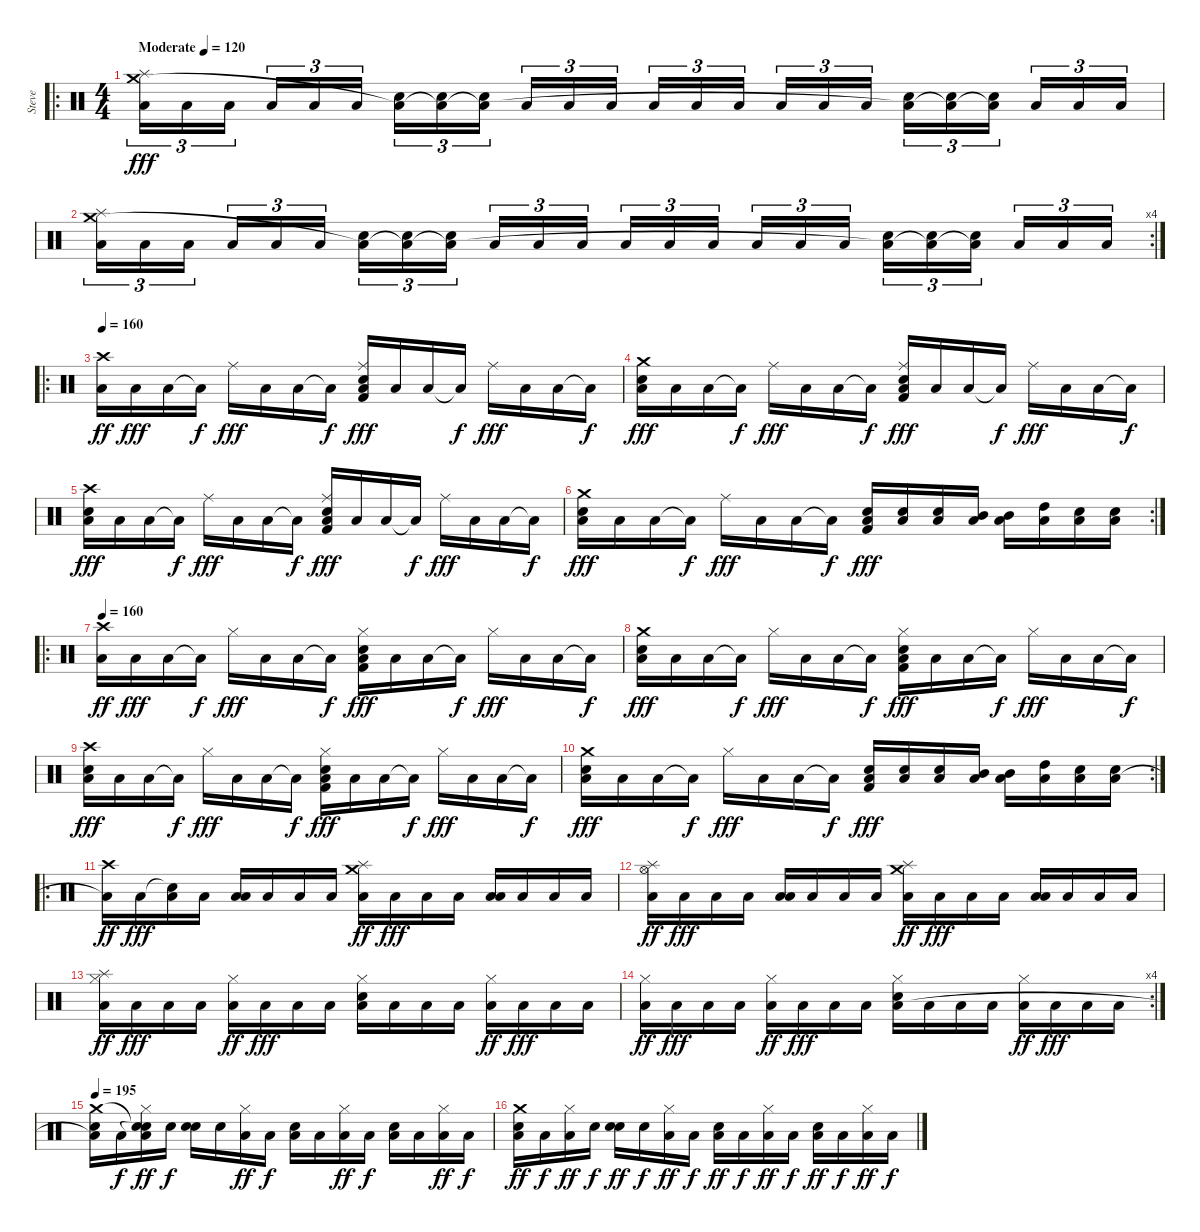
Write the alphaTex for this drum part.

\track ("Steve" "Steve") {instrument percussion}
\staff {score}
\articulation defaults
\ro
\ts (4 4)
\tempo (120 "Moderate")
\clef neutral
\ks c
("Splash (hit)" "Crash medium (hit)" "Low Floor Tom (hit)").16{tu (3 2) dy fff} "Low Floor Tom (hit)".16{tu (3 2)} "Low Floor Tom (hit)".16{tu (3 2) beam splitsecondary} "Low Floor Tom (hit)".16{tu (3 2)} "Low Floor Tom (hit)".16{tu (3 2)} "Low Floor Tom (hit)".16{tu (3 2)} ("Electric Snare (hit)" "Low Floor Tom (hit)"{t}).16{tu (3 2)} ("Electric Snare (hit)" "Low Floor Tom (hit)"{t}).16{tu (3 2)} ("Electric Snare (hit)" "Low Floor Tom (hit)"{t}).16{tu (3 2) beam splitsecondary} "Low Floor Tom (hit)".16{tu (3 2)} "Low Floor Tom (hit)".16{tu (3 2)} "Low Floor Tom (hit)".16{tu (3 2)} "Low Floor Tom (hit)".16{tu (3 2)} "Low Floor Tom (hit)".16{tu (3 2)} "Low Floor Tom (hit)".16{tu (3 2) beam splitsecondary} "Low Floor Tom (hit)".16{tu (3 2)} "Low Floor Tom (hit)".16{tu (3 2)} "Low Floor Tom (hit)".16{tu (3 2)} ("Electric Snare (hit)" "Low Floor Tom (hit)"{t}).16{tu (3 2)} ("Electric Snare (hit)" "Low Floor Tom (hit)"{t}).16{tu (3 2)} ("Electric Snare (hit)" "Low Floor Tom (hit)"{t}).16{tu (3 2) beam splitsecondary} "Low Floor Tom (hit)".16{tu (3 2)} "Low Floor Tom (hit)".16{tu (3 2)} "Low Floor Tom (hit)".16{tu (3 2)} |
\rc 4
("Splash (hit)" "Crash medium (hit)" "Low Floor Tom (hit)").16{tu (3 2)} "Low Floor Tom (hit)".16{tu (3 2)} "Low Floor Tom (hit)".16{tu (3 2) beam splitsecondary} "Low Floor Tom (hit)".16{tu (3 2)} "Low Floor Tom (hit)".16{tu (3 2)} "Low Floor Tom (hit)".16{tu (3 2)} ("Electric Snare (hit)" "Low Floor Tom (hit)"{t}).16{tu (3 2)} ("Electric Snare (hit)" "Low Floor Tom (hit)"{t}).16{tu (3 2)} ("Electric Snare (hit)" "Low Floor Tom (hit)"{t}).16{tu (3 2) beam splitsecondary} "Low Floor Tom (hit)".16{tu (3 2)} "Low Floor Tom (hit)".16{tu (3 2)} "Low Floor Tom (hit)".16{tu (3 2)} "Low Floor Tom (hit)".16{tu (3 2)} "Low Floor Tom (hit)".16{tu (3 2)} "Low Floor Tom (hit)".16{tu (3 2) beam splitsecondary} "Low Floor Tom (hit)".16{tu (3 2)} "Low Floor Tom (hit)".16{tu (3 2)} "Low Floor Tom (hit)".16{tu (3 2)} ("Electric Snare (hit)" "Low Floor Tom (hit)"{t}).16{tu (3 2)} ("Electric Snare (hit)" "Low Floor Tom (hit)"{t}).16{tu (3 2)} ("Electric Snare (hit)" "Low Floor Tom (hit)"{t}).16{tu (3 2) beam splitsecondary} "Low Floor Tom (hit)".16{tu (3 2)} "Low Floor Tom (hit)".16{tu (3 2)} "Low Floor Tom (hit)".16{tu (3 2)} |
\ro
\tempo 160
("Crash high (hit)" "Low Floor Tom (hit)").16{dy ff} "Low Floor Tom (hit)".16{dy fff} "Low Floor Tom (hit)".16 "Low Floor Tom (hit)"{t}.16{dy f} "Ride (middle)".16{dy fff} "Low Floor Tom (hit)".16 "Low Floor Tom (hit)".16 "Low Floor Tom (hit)"{t}.16{dy f} ("Electric Snare (hit)" "Kick (hit) 2" "Ride (middle)" "Low Floor Tom (hit)").16{dy fff} "Low Floor Tom (hit)".16 "Low Floor Tom (hit)".16 "Low Floor Tom (hit)"{t}.16{dy f} "Ride (middle)".16{dy fff} "Low Floor Tom (hit)".16 "Low Floor Tom (hit)".16 "Low Floor Tom (hit)"{t}.16{dy f} |
("Crash medium (hit)" "Electric Snare (hit)" "Low Floor Tom (hit)").16{dy fff} "Low Floor Tom (hit)".16 "Low Floor Tom (hit)".16 "Low Floor Tom (hit)"{t}.16{dy f} "Ride (middle)".16{dy fff} "Low Floor Tom (hit)".16 "Low Floor Tom (hit)".16 "Low Floor Tom (hit)"{t}.16{dy f} ("Electric Snare (hit)" "Kick (hit) 2" "Ride (middle)" "Low Floor Tom (hit)").16{dy fff} "Low Floor Tom (hit)".16 "Low Floor Tom (hit)".16 "Low Floor Tom (hit)"{t}.16{dy f} "Ride (middle)".16{dy fff} "Low Floor Tom (hit)".16 "Low Floor Tom (hit)".16 "Low Floor Tom (hit)"{t}.16{dy f} |
("Crash high (hit)" "Electric Snare (hit)" "Low Floor Tom (hit)").16{dy fff} "Low Floor Tom (hit)".16 "Low Floor Tom (hit)".16 "Low Floor Tom (hit)"{t}.16{dy f} "Ride (middle)".16{dy fff} "Low Floor Tom (hit)".16 "Low Floor Tom (hit)".16 "Low Floor Tom (hit)"{t}.16{dy f} ("Electric Snare (hit)" "Kick (hit) 2" "Ride (middle)" "Low Floor Tom (hit)").16{dy fff} "Low Floor Tom (hit)".16 "Low Floor Tom (hit)".16 "Low Floor Tom (hit)"{t}.16{dy f} "Ride (middle)".16{dy fff} "Low Floor Tom (hit)".16 "Low Floor Tom (hit)".16 "Low Floor Tom (hit)"{t}.16{dy f} |
\rc 2
("Crash medium (hit)" "Electric Snare (hit)" "Low Floor Tom (hit)").16{dy fff} "Low Floor Tom (hit)".16 "Low Floor Tom (hit)".16 "Low Floor Tom (hit)"{t}.16{dy f} "Ride (middle)".16{dy fff} "Low Floor Tom (hit)".16 "Low Floor Tom (hit)".16 "Low Floor Tom (hit)"{t}.16{dy f} ("Electric Snare (hit)" "Kick (hit) 2" "Low Floor Tom (hit)").16{dy fff} ("Electric Snare (hit)" "Low Floor Tom (hit)").16 ("Electric Snare (hit)" "Low Floor Tom (hit)").16 ("Mid Tom (hit)" "Low Floor Tom (hit)").16 ("Mid Tom (hit)" "Low Floor Tom (hit)").16 ("High Tom (hit)" "Low Floor Tom (hit)").16 ("Electric Snare (hit)" "Low Floor Tom (hit)").16 ("Electric Snare (hit)" "Low Floor Tom (hit)").16 |
\ro
\tempo 160
("Crash high (hit)" "Low Floor Tom (hit)").16{dy ff} "Low Floor Tom (hit)".16{dy fff} "Low Floor Tom (hit)".16 "Low Floor Tom (hit)"{t}.16{dy f} "Hi-Hat (closed)".16{dy fff} "Low Floor Tom (hit)".16 "Low Floor Tom (hit)".16 "Low Floor Tom (hit)"{t}.16{dy f} ("Electric Snare (hit)" "Kick (hit) 2" "Hi-Hat (closed)" "Low Floor Tom (hit)").16{dy fff} "Low Floor Tom (hit)".16 "Low Floor Tom (hit)".16 "Low Floor Tom (hit)"{t}.16{dy f} "Hi-Hat (closed)".16{dy fff} "Low Floor Tom (hit)".16 "Low Floor Tom (hit)".16 "Low Floor Tom (hit)"{t}.16{dy f} |
("Crash medium (hit)" "Electric Snare (hit)" "Low Floor Tom (hit)").16{dy fff} "Low Floor Tom (hit)".16 "Low Floor Tom (hit)".16 "Low Floor Tom (hit)"{t}.16{dy f} "Hi-Hat (closed)".16{dy fff} "Low Floor Tom (hit)".16 "Low Floor Tom (hit)".16 "Low Floor Tom (hit)"{t}.16{dy f} ("Electric Snare (hit)" "Kick (hit) 2" "Hi-Hat (closed)" "Low Floor Tom (hit)").16{dy fff} "Low Floor Tom (hit)".16 "Low Floor Tom (hit)".16 "Low Floor Tom (hit)"{t}.16{dy f} "Hi-Hat (closed)".16{dy fff} "Low Floor Tom (hit)".16 "Low Floor Tom (hit)".16 "Low Floor Tom (hit)"{t}.16{dy f} |
("Crash high (hit)" "Electric Snare (hit)" "Low Floor Tom (hit)").16{dy fff} "Low Floor Tom (hit)".16 "Low Floor Tom (hit)".16 "Low Floor Tom (hit)"{t}.16{dy f} "Hi-Hat (closed)".16{dy fff} "Low Floor Tom (hit)".16 "Low Floor Tom (hit)".16 "Low Floor Tom (hit)"{t}.16{dy f} ("Electric Snare (hit)" "Kick (hit) 2" "Hi-Hat (closed)" "Low Floor Tom (hit)").16{dy fff} "Low Floor Tom (hit)".16 "Low Floor Tom (hit)".16 "Low Floor Tom (hit)"{t}.16{dy f} "Hi-Hat (closed)".16{dy fff} "Low Floor Tom (hit)".16 "Low Floor Tom (hit)".16 "Low Floor Tom (hit)"{t}.16{dy f} |
\rc 2
("Crash medium (hit)" "Electric Snare (hit)" "Low Floor Tom (hit)").16{dy fff} "Low Floor Tom (hit)".16 "Low Floor Tom (hit)".16 "Low Floor Tom (hit)"{t}.16{dy f} "Hi-Hat (closed)".16{dy fff} "Low Floor Tom (hit)".16 "Low Floor Tom (hit)".16 "Low Floor Tom (hit)"{t}.16{dy f} ("Electric Snare (hit)" "Kick (hit) 2" "Low Floor Tom (hit)").16{dy fff} ("Electric Snare (hit)" "Low Floor Tom (hit)").16 ("Electric Snare (hit)" "Low Floor Tom (hit)").16 ("Mid Tom (hit)" "Low Floor Tom (hit)").16 ("Mid Tom (hit)" "Low Floor Tom (hit)").16 ("High Tom (hit)" "Low Floor Tom (hit)").16 ("Electric Snare (hit)" "Low Floor Tom (hit)").16 ("Electric Snare (hit)" "Low Floor Tom (hit)").16 |
\ro
("Crash high (hit)" "Low Floor Tom (hit)"{t}).16{dy ff} "Low Floor Tom (hit)".16{dy fff} ("Snare (hit)"{t} "Low Floor Tom (hit)").16 "Low Floor Tom (hit)".16 ("Low Tom (hit)" "Low Floor Tom (hit)").16 "Low Floor Tom (hit)".16 "Low Floor Tom (hit)".16 "Low Floor Tom (hit)".16 ("Crash medium (hit)" "Splash (hit)" "Low Floor Tom (hit)").16{dy ff} "Low Floor Tom (hit)".16{dy fff} "Low Floor Tom (hit)".16 "Low Floor Tom (hit)".16 ("Low Tom (hit)" "Low Floor Tom (hit)").16 "Low Floor Tom (hit)".16 "Low Floor Tom (hit)".16 "Low Floor Tom (hit)".16 |
("Splash (hit)" "Hi-Hat (open)" "Low Floor Tom (hit)").16{dy ff} "Low Floor Tom (hit)".16{dy fff} "Low Floor Tom (hit)".16 "Low Floor Tom (hit)".16 ("Low Tom (hit)" "Low Floor Tom (hit)").16 "Low Floor Tom (hit)".16 "Low Floor Tom (hit)".16 "Low Floor Tom (hit)".16 ("Crash medium (hit)" "Splash (hit)" "Low Floor Tom (hit)").16{dy ff} "Low Floor Tom (hit)".16{dy fff} "Low Floor Tom (hit)".16 "Low Floor Tom (hit)".16 ("Low Tom (hit)" "Low Floor Tom (hit)").16 "Low Floor Tom (hit)".16 "Low Floor Tom (hit)".16 "Low Floor Tom (hit)".16 |
("Splash (hit)" "Hi-Hat (closed)" "Low Floor Tom (hit)").16{dy ff} "Low Floor Tom (hit)".16{dy fff} "Low Floor Tom (hit)".16 "Low Floor Tom (hit)".16 ("Hi-Hat (closed)" "Low Floor Tom (hit)").16{dy ff} "Low Floor Tom (hit)".16{dy fff} "Low Floor Tom (hit)".16 "Low Floor Tom (hit)".16 ("Electric Snare (hit)" "Hi-Hat (closed)" "Low Floor Tom (hit)").16 "Low Floor Tom (hit)".16 "Low Floor Tom (hit)".16 "Low Floor Tom (hit)".16 ("Hi-Hat (closed)" "Low Floor Tom (hit)").16{dy ff} "Low Floor Tom (hit)".16{dy fff} "Low Floor Tom (hit)".16 "Low Floor Tom (hit)".16 |
\rc 4
("Hi-Hat (closed)" "Low Floor Tom (hit)").16{dy ff} "Low Floor Tom (hit)".16{dy fff} "Low Floor Tom (hit)".16 "Low Floor Tom (hit)".16 ("Hi-Hat (closed)" "Low Floor Tom (hit)").16{dy ff} "Low Floor Tom (hit)".16{dy fff} "Low Floor Tom (hit)".16 "Low Floor Tom (hit)".16 ("Electric Snare (hit)" "Hi-Hat (closed)" "Low Floor Tom (hit)").16 "Low Floor Tom (hit)".16 "Low Floor Tom (hit)".16 "Low Floor Tom (hit)".16 ("Hi-Hat (closed)" "Low Floor Tom (hit)").16{dy ff} "Low Floor Tom (hit)".16{dy fff} "Low Floor Tom (hit)".16 "Low Floor Tom (hit)".16 |
\tempo 195
("Electric Snare (hit)" "Crash medium (hit)" "Low Floor Tom (hit)"{t}).16 "Low Floor Tom (hit)".16{dy f} ("Snare (hit)"{t} "Snare (hit)"{t} "Hi-Hat (closed)" "Low Floor Tom (hit)").16{dy ff} "Snare (hit)".16{dy f} ("Electric Snare (hit)" "Snare (hit)").16 "Snare (hit)".16 ("Hi-Hat (closed)" "Low Floor Tom (hit)").16{dy ff} "Low Floor Tom (hit)".16{dy f} ("Electric Snare (hit)" "Low Floor Tom (hit)").16 "Low Floor Tom (hit)".16 ("Hi-Hat (closed)" "Low Floor Tom (hit)").16{dy ff} "Low Floor Tom (hit)".16{dy f} ("Electric Snare (hit)" "Low Floor Tom (hit)").16 "Low Floor Tom (hit)".16 ("Hi-Hat (closed)" "Low Floor Tom (hit)").16{dy ff} "Low Floor Tom (hit)".16{dy f} |
("Electric Snare (hit)" "Crash medium (hit)" "Low Floor Tom (hit)").16{dy ff} "Low Floor Tom (hit)".16{dy f} ("Hi-Hat (closed)" "Low Floor Tom (hit)").16{dy ff} "Snare (hit)".16{dy f} ("Electric Snare (hit)" "Snare (hit)").16{dy ff} "Snare (hit)".16{dy f} ("Hi-Hat (closed)" "Low Floor Tom (hit)").16{dy ff} "Low Floor Tom (hit)".16{dy f} ("Electric Snare (hit)" "Low Floor Tom (hit)").16{dy ff} "Low Floor Tom (hit)".16{dy f} ("Hi-Hat (closed)" "Low Floor Tom (hit)").16{dy ff} "Low Floor Tom (hit)".16{dy f} ("Electric Snare (hit)" "Low Floor Tom (hit)").16{dy ff} "Low Floor Tom (hit)".16{dy f} ("Hi-Hat (closed)" "Low Floor Tom (hit)").16{dy ff} "Low Floor Tom (hit)".16{dy f}
